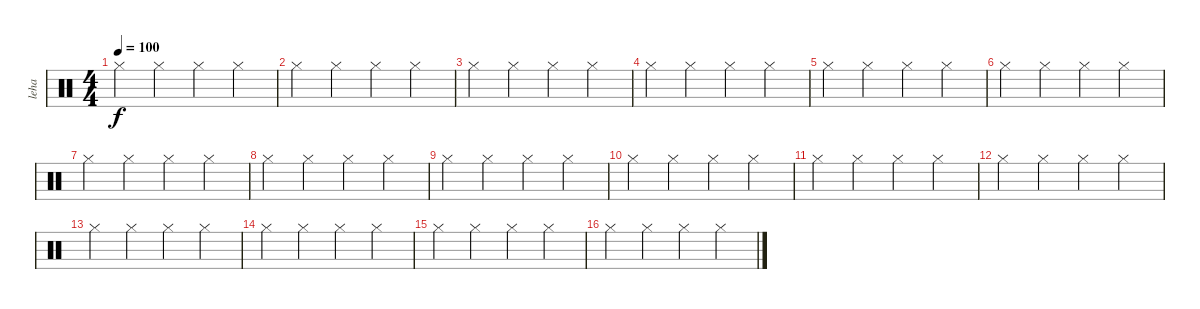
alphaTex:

\track ("leha" "leha") {instrument percussion}
\staff {score}
\articulation defaults
\ts (4 4)
\tempo 100
\clef neutral
\ks c "Hi-Hat (closed)".4{dy f} "Hi-Hat (closed)".4 "Hi-Hat (closed)".4 "Hi-Hat (closed)".4
|
"Hi-Hat (closed)".4 "Hi-Hat (closed)".4 "Hi-Hat (closed)".4 "Hi-Hat (closed)".4 |
"Hi-Hat (closed)".4 "Hi-Hat (closed)".4 "Hi-Hat (closed)".4 "Hi-Hat (closed)".4 |
"Hi-Hat (closed)".4 "Hi-Hat (closed)".4 "Hi-Hat (closed)".4 "Hi-Hat (closed)".4 |
"Hi-Hat (closed)".4 "Hi-Hat (closed)".4 "Hi-Hat (closed)".4 "Hi-Hat (closed)".4 |
"Hi-Hat (closed)".4 "Hi-Hat (closed)".4 "Hi-Hat (closed)".4 "Hi-Hat (closed)".4 |
"Hi-Hat (closed)".4 "Hi-Hat (closed)".4 "Hi-Hat (closed)".4 "Hi-Hat (closed)".4 |
"Hi-Hat (closed)".4 "Hi-Hat (closed)".4 "Hi-Hat (closed)".4 "Hi-Hat (closed)".4 |
"Hi-Hat (closed)".4 "Hi-Hat (closed)".4 "Hi-Hat (closed)".4 "Hi-Hat (closed)".4 |
"Hi-Hat (closed)".4 "Hi-Hat (closed)".4 "Hi-Hat (closed)".4 "Hi-Hat (closed)".4 |
"Hi-Hat (closed)".4 "Hi-Hat (closed)".4 "Hi-Hat (closed)".4 "Hi-Hat (closed)".4 |
"Hi-Hat (closed)".4 "Hi-Hat (closed)".4 "Hi-Hat (closed)".4 "Hi-Hat (closed)".4 |
"Hi-Hat (closed)".4 "Hi-Hat (closed)".4 "Hi-Hat (closed)".4 "Hi-Hat (closed)".4 |
"Hi-Hat (closed)".4 "Hi-Hat (closed)".4 "Hi-Hat (closed)".4 "Hi-Hat (closed)".4 |
"Hi-Hat (closed)".4 "Hi-Hat (closed)".4 "Hi-Hat (closed)".4 "Hi-Hat (closed)".4 |
"Hi-Hat (closed)".4 "Hi-Hat (closed)".4 "Hi-Hat (closed)".4 "Hi-Hat (closed)".4
